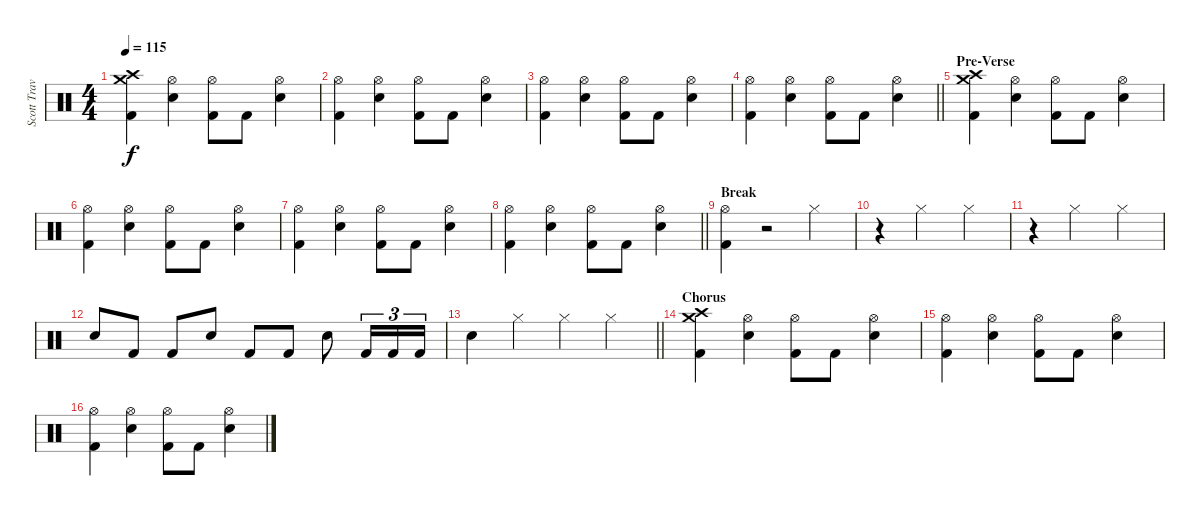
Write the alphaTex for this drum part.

\track ("Scott Travis" "Scott Trav") {instrument percussion}
\staff {score}
\articulation defaults
\ts (4 4)
\tempo 115
\clef neutral
\ks c
("Crash medium (hit)" "Crash high (hit)" "Kick (hit) 2").4{dy f} ("Hi-Hat (open)" "Snare (hit) 2").4 ("Hi-Hat (open)" "Kick (hit) 2").8 "Kick (hit) 2".8 ("Hi-Hat (open)" "Snare (hit) 2").4 |
("Hi-Hat (open)" "Kick (hit) 2").4 ("Hi-Hat (open)" "Snare (hit) 2").4 ("Hi-Hat (open)" "Kick (hit) 2").8 "Kick (hit) 2".8 ("Hi-Hat (open)" "Snare (hit) 2").4 |
("Hi-Hat (open)" "Kick (hit) 2").4 ("Hi-Hat (open)" "Snare (hit) 2").4 ("Hi-Hat (open)" "Kick (hit) 2").8 "Kick (hit) 2".8 ("Hi-Hat (open)" "Snare (hit) 2").4 |
\barLineRight lightlight
("Hi-Hat (open)" "Kick (hit) 2").4 ("Hi-Hat (open)" "Snare (hit) 2").4 ("Hi-Hat (open)" "Kick (hit) 2").8 "Kick (hit) 2".8 ("Hi-Hat (open)" "Snare (hit) 2").4 |
\section ("" "Pre-Verse")
("Crash medium (hit)" "Crash high (hit)" "Kick (hit) 2").4 ("Hi-Hat (open)" "Snare (hit) 2").4 ("Hi-Hat (open)" "Kick (hit) 2").8 "Kick (hit) 2".8 ("Hi-Hat (open)" "Snare (hit) 2").4 |
("Hi-Hat (open)" "Kick (hit) 2").4 ("Hi-Hat (open)" "Snare (hit) 2").4 ("Hi-Hat (open)" "Kick (hit) 2").8 "Kick (hit) 2".8 ("Hi-Hat (open)" "Snare (hit) 2").4 |
("Hi-Hat (open)" "Kick (hit) 2").4 ("Hi-Hat (open)" "Snare (hit) 2").4 ("Hi-Hat (open)" "Kick (hit) 2").8 "Kick (hit) 2".8 ("Hi-Hat (open)" "Snare (hit) 2").4 |
\barLineRight lightlight
("Hi-Hat (open)" "Kick (hit) 2").4 ("Hi-Hat (open)" "Snare (hit) 2").4 ("Hi-Hat (open)" "Kick (hit) 2").8 "Kick (hit) 2".8 ("Hi-Hat (open)" "Snare (hit) 2").4 |
\section ("" "Break")
("Hi-Hat (open)" "Kick (hit) 2").4 r.2 "Hi-Hat (closed)".4 |
r.4 "Hi-Hat (closed)".2 "Hi-Hat (closed)".4 |
r.4 "Hi-Hat (closed)".2 "Hi-Hat (closed)".4 |
"Snare (hit) 2".8 "Kick (hit) 2".8 "Kick (hit) 2".8 "Snare (hit) 2".8 "Kick (hit) 2".8 "Kick (hit) 2".8 "Snare (hit) 2".8 "Kick (hit) 2".16{tu (3 2)} "Kick (hit) 2".16{tu (3 2)} "Kick (hit) 2".16{tu (3 2)} |
\barLineRight lightlight "Snare (hit) 2".4 "Hi-Hat (closed)".4 "Hi-Hat (closed)".4 "Hi-Hat (closed)".4
|
\section ("" "Chorus")
("Crash medium (hit)" "Crash high (hit)" "Kick (hit) 2").4 ("Hi-Hat (open)" "Snare (hit) 2").4 ("Hi-Hat (open)" "Kick (hit) 2").8 "Kick (hit) 2".8 ("Hi-Hat (open)" "Snare (hit) 2").4 |
("Hi-Hat (open)" "Kick (hit) 2").4 ("Hi-Hat (open)" "Snare (hit) 2").4 ("Hi-Hat (open)" "Kick (hit) 2").8 "Kick (hit) 2".8 ("Hi-Hat (open)" "Snare (hit) 2").4 |
("Hi-Hat (open)" "Kick (hit) 2").4 ("Hi-Hat (open)" "Snare (hit) 2").4 ("Hi-Hat (open)" "Kick (hit) 2").8 "Kick (hit) 2".8 ("Hi-Hat (open)" "Snare (hit) 2").4
